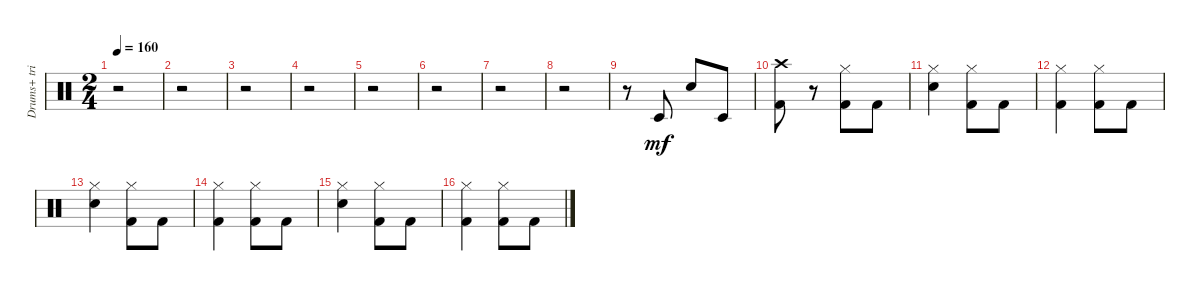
\track ("Drums+ triangle" "Drums+ tri") {instrument percussion}
\staff {score}
\articulation defaults
\ts (2 4)
\tempo 160
\clef neutral
\ks c
r.2{dy mf} |
r.2 |
r.2 |
r.2 |
r.2 |
r.2 |
r.2 |
r.2 |
r.8 "Timbale low (hit)".8 "Snare (hit) 2".8 "Timbale low (hit)".8 |
("Crash high (hit)" "Kick (hit) 2").8 r.8 ("Kick (hit) 2" "Hi-Hat (closed)").8 "Kick (hit) 2".8 |
("Hi-Hat (closed)" "Snare (hit) 2").4 ("Kick (hit) 2" "Hi-Hat (closed)").8 "Kick (hit) 2".8 |
("Hi-Hat (closed)" "Kick (hit) 2").4 ("Kick (hit) 2" "Hi-Hat (closed)").8 "Kick (hit) 2".8 |
("Hi-Hat (closed)" "Snare (hit) 2").4 ("Kick (hit) 2" "Hi-Hat (closed)").8 "Kick (hit) 2".8 |
("Hi-Hat (closed)" "Kick (hit) 2").4 ("Kick (hit) 2" "Hi-Hat (closed)").8 "Kick (hit) 2".8 |
("Hi-Hat (closed)" "Snare (hit) 2").4 ("Kick (hit) 2" "Hi-Hat (closed)").8 "Kick (hit) 2".8 |
("Hi-Hat (closed)" "Kick (hit) 2").4 ("Kick (hit) 2" "Hi-Hat (closed)").8 "Kick (hit) 2".8
